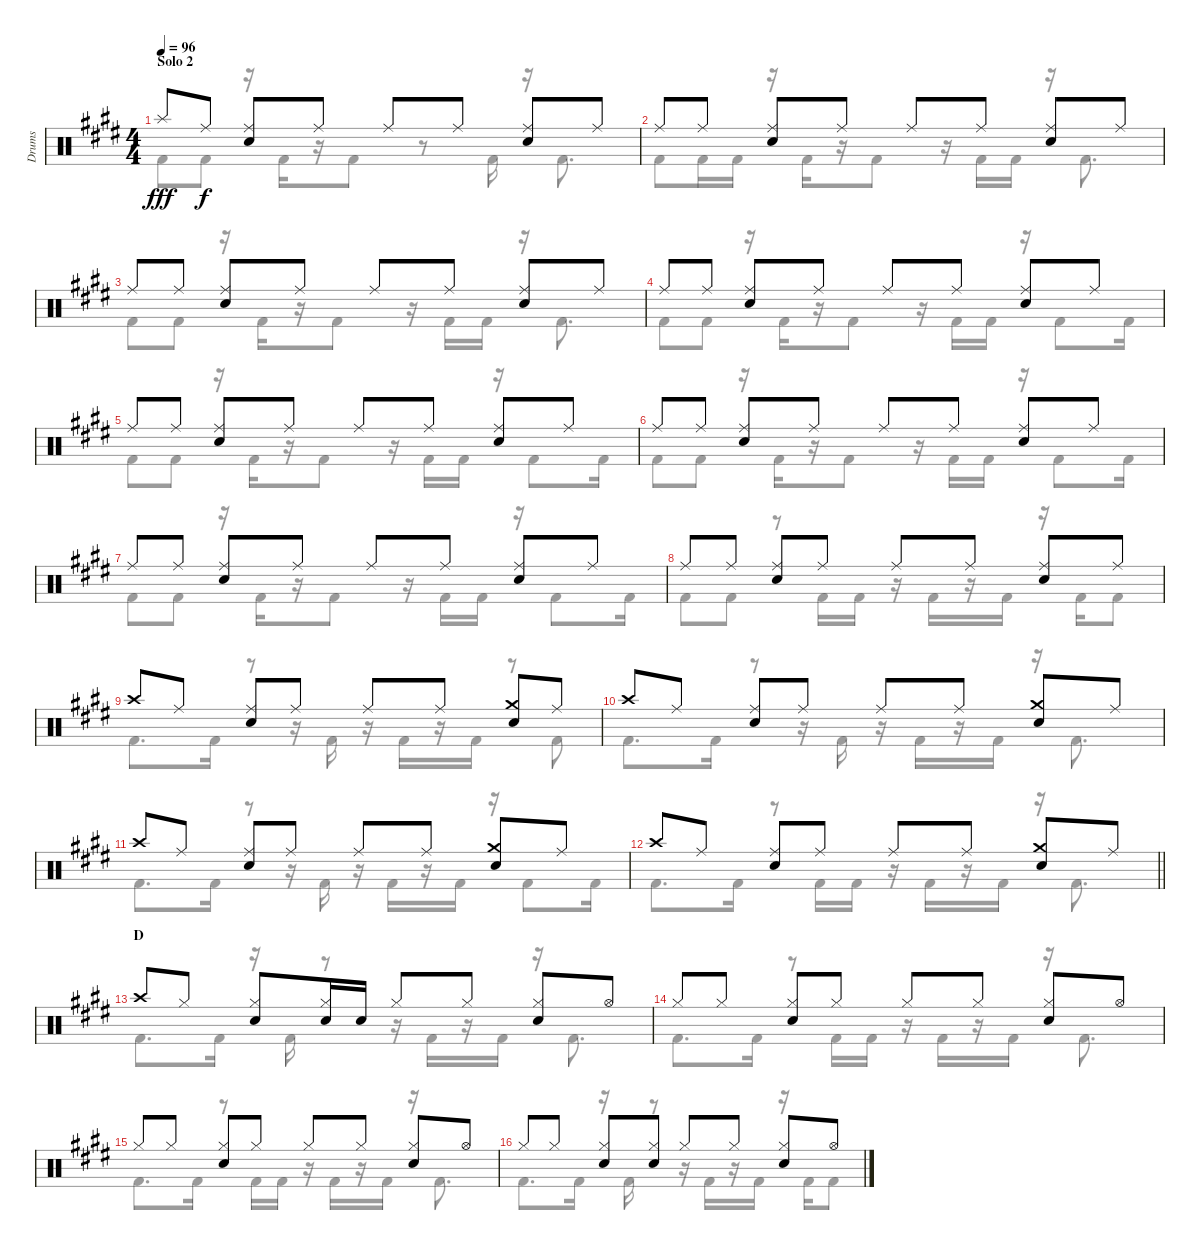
\track ("Drums" "Drums") {instrument percussion}
\staff {score}
\articulation defaults
\voice
\ts (4 4)
\section ("" "Solo 2")
\tempo 96
\clef neutral
\ks e "Splash (hit)".8{dy fff} "Ride (middle)".8{dy f}
("Ride (middle)" "Snare (hit) 2").8 "Ride (middle)".8 "Ride (middle)".8 "Ride (middle)".8 ("Ride (middle)" "Snare (hit) 2").8 "Ride (middle)".8 |
"Ride (middle)".8 "Ride (middle)".8 ("Ride (middle)" "Snare (hit) 2").8 "Ride (middle)".8 "Ride (middle)".8 "Ride (middle)".8 ("Ride (middle)" "Snare (hit) 2").8 "Ride (middle)".8 |
"Ride (middle)".8 "Ride (middle)".8 ("Ride (middle)" "Snare (hit) 2").8 "Ride (middle)".8 "Ride (middle)".8 "Ride (middle)".8 ("Ride (middle)" "Snare (hit) 2").8 "Ride (middle)".8 |
"Ride (middle)".8 "Ride (middle)".8 ("Ride (middle)" "Snare (hit) 2").8 "Ride (middle)".8 "Ride (middle)".8 "Ride (middle)".8 ("Ride (middle)" "Snare (hit) 2").8 "Ride (middle)".8 |
"Ride (middle)".8 "Ride (middle)".8 ("Ride (middle)" "Snare (hit) 2").8 "Ride (middle)".8 "Ride (middle)".8 "Ride (middle)".8 ("Ride (middle)" "Snare (hit) 2").8 "Ride (middle)".8 |
"Ride (middle)".8 "Ride (middle)".8 ("Ride (middle)" "Snare (hit) 2").8 "Ride (middle)".8 "Ride (middle)".8 "Ride (middle)".8 ("Ride (middle)" "Snare (hit) 2").8 "Ride (middle)".8 |
"Ride (middle)".8 "Ride (middle)".8 ("Ride (middle)" "Snare (hit) 2").8 "Ride (middle)".8 "Ride (middle)".8 "Ride (middle)".8 ("Ride (middle)" "Snare (hit) 2").8 "Ride (middle)".8 |
"Ride (middle)".8 "Ride (middle)".8 ("Ride (middle)" "Snare (hit) 2").8 "Ride (middle)".8 "Ride (middle)".8 "Ride (middle)".8 ("Ride (middle)" "Snare (hit) 2").8 "Ride (middle)".8 |
"Crash high (hit)".8 "Ride (middle)".8 ("Ride (middle)" "Snare (hit) 2").8 "Ride (middle)".8 "Ride (middle)".8 "Ride (middle)".8 ("Crash medium (hit)" "Snare (hit) 2").8 "Ride (middle)".8 |
"Crash high (hit)".8 "Ride (middle)".8 ("Ride (middle)" "Snare (hit) 2").8 "Ride (middle)".8 "Ride (middle)".8 "Ride (middle)".8 ("Crash medium (hit)" "Snare (hit) 2").8 "Ride (middle)".8 |
"Crash high (hit)".8 "Ride (middle)".8 ("Ride (middle)" "Snare (hit) 2").8 "Ride (middle)".8 "Ride (middle)".8 "Ride (middle)".8 ("Crash medium (hit)" "Snare (hit) 2").8 "Ride (middle)".8 |
\barLineRight lightlight "Crash high (hit)".8 "Ride (middle)".8
("Ride (middle)" "Snare (hit) 2").8 "Ride (middle)".8 "Ride (middle)".8 "Ride (middle)".8 ("Crash medium (hit)" "Snare (hit) 2").8 "Ride (middle)".8 |
\section ("" "D")
"Crash high (hit)".8 "Hi-Hat (closed)".8 ("Hi-Hat (closed)" "Snare (hit) 2").8 ("Hi-Hat (closed)" "Snare (hit) 2").16 "Snare (hit) 2".16 "Hi-Hat (closed)".8 "Hi-Hat (closed)".8 ("Hi-Hat (closed)" "Snare (hit) 2").8 "Hi-Hat (open)".8 |
"Hi-Hat (closed)".8 "Hi-Hat (closed)".8 ("Hi-Hat (closed)" "Snare (hit) 2").8 "Hi-Hat (closed)".8 "Hi-Hat (closed)".8 "Hi-Hat (closed)".8 ("Hi-Hat (closed)" "Snare (hit) 2").8 "Hi-Hat (open)".8 |
"Hi-Hat (closed)".8 "Hi-Hat (closed)".8 ("Hi-Hat (closed)" "Snare (hit) 2").8 "Hi-Hat (closed)".8 "Hi-Hat (closed)".8 "Hi-Hat (closed)".8 ("Hi-Hat (closed)" "Snare (hit) 2").8 "Hi-Hat (open)".8 |
"Hi-Hat (closed)".8 "Hi-Hat (closed)".8 ("Hi-Hat (closed)" "Snare (hit) 2").8 ("Hi-Hat (closed)" "Snare (hit) 2").8 "Hi-Hat (closed)".8 "Hi-Hat (closed)".8 ("Hi-Hat (closed)" "Snare (hit) 2").8 "Hi-Hat (open)".8
\voice
\clef neutral
\ottava regular
\simile none
\ks e "Kick (hit) 2".8{dy fff} "Kick (hit) 2".8
r.16 "Kick (hit) 2".16 r.16 "Kick (hit) 2".8 r.8 "Kick (hit) 2".16 r.16 "Kick (hit) 2".8{d} |
"Kick (hit) 2".8 "Kick (hit) 2".16 "Kick (hit) 2".16 r.16 "Kick (hit) 2".16 r.16 "Kick (hit) 2".8 r.16 "Kick (hit) 2".16 "Kick (hit) 2".16 r.16 "Kick (hit) 2".8{d} |
"Kick (hit) 2".8 "Kick (hit) 2".8 r.16 "Kick (hit) 2".16 r.16 "Kick (hit) 2".8 r.16 "Kick (hit) 2".16 "Kick (hit) 2".16 r.16 "Kick (hit) 2".8{d} |
"Kick (hit) 2".8 "Kick (hit) 2".8 r.16 "Kick (hit) 2".16 r.16 "Kick (hit) 2".8 r.16 "Kick (hit) 2".16 "Kick (hit) 2".16 r.16 "Kick (hit) 2".8 "Kick (hit) 2".16 |
"Kick (hit) 2".8 "Kick (hit) 2".8 r.16 "Kick (hit) 2".16 r.16 "Kick (hit) 2".8 r.16 "Kick (hit) 2".16 "Kick (hit) 2".16 r.16 "Kick (hit) 2".8 "Kick (hit) 2".16 |
"Kick (hit) 2".8 "Kick (hit) 2".8 r.16 "Kick (hit) 2".16 r.16 "Kick (hit) 2".8 r.16 "Kick (hit) 2".16 "Kick (hit) 2".16 r.16 "Kick (hit) 2".8 "Kick (hit) 2".16 |
"Kick (hit) 2".8 "Kick (hit) 2".8 r.16 "Kick (hit) 2".16 r.16 "Kick (hit) 2".8 r.16 "Kick (hit) 2".16 "Kick (hit) 2".16 r.16 "Kick (hit) 2".8 "Kick (hit) 2".16 |
"Kick (hit) 2".8 "Kick (hit) 2".8 r.8 "Kick (hit) 2".16 "Kick (hit) 2".16 r.16 "Kick (hit) 2".16 r.16 "Kick (hit) 2".16 r.16 "Kick (hit) 2".16 "Kick (hit) 2".8 |
"Kick (hit) 2".8{d} "Kick (hit) 2".16 r.8 r.16 "Kick (hit) 2".16 r.16 "Kick (hit) 2".16 r.16 "Kick (hit) 2".16 r.8 "Kick (hit) 2".8 |
"Kick (hit) 2".8{d} "Kick (hit) 2".16 r.8 r.16 "Kick (hit) 2".16 r.16 "Kick (hit) 2".16 r.16 "Kick (hit) 2".16 r.16 "Kick (hit) 2".8{d} |
"Kick (hit) 2".8{d} "Kick (hit) 2".16 r.8 r.16 "Kick (hit) 2".16 r.16 "Kick (hit) 2".16 r.16 "Kick (hit) 2".16 r.16 "Kick (hit) 2".8 "Kick (hit) 2".16 |
\barLineRight lightlight "Kick (hit) 2".8{d} "Kick (hit) 2".16
r.8 "Kick (hit) 2".16 "Kick (hit) 2".16 r.16 "Kick (hit) 2".16 r.16 "Kick (hit) 2".16 r.16 "Kick (hit) 2".8{d} |
"Kick (hit) 2".8{d} "Kick (hit) 2".16 r.16 "Kick (hit) 2".16 r.8 r.16 "Kick (hit) 2".16 r.16 "Kick (hit) 2".16 r.16 "Kick (hit) 2".8{d} |
"Kick (hit) 2".8{d} "Kick (hit) 2".16 r.8 "Kick (hit) 2".16 "Kick (hit) 2".16 r.16 "Kick (hit) 2".16 r.16 "Kick (hit) 2".16 r.16 "Kick (hit) 2".8{d} |
"Kick (hit) 2".8{d} "Kick (hit) 2".16 r.8 "Kick (hit) 2".16 "Kick (hit) 2".16 r.16 "Kick (hit) 2".16 r.16 "Kick (hit) 2".16 r.16 "Kick (hit) 2".8{d} |
"Kick (hit) 2".8{d} "Kick (hit) 2".16 r.16 "Kick (hit) 2".16 r.8 r.16 "Kick (hit) 2".16 r.16 "Kick (hit) 2".16 r.16 "Kick (hit) 2".16 "Kick (hit) 2".8
